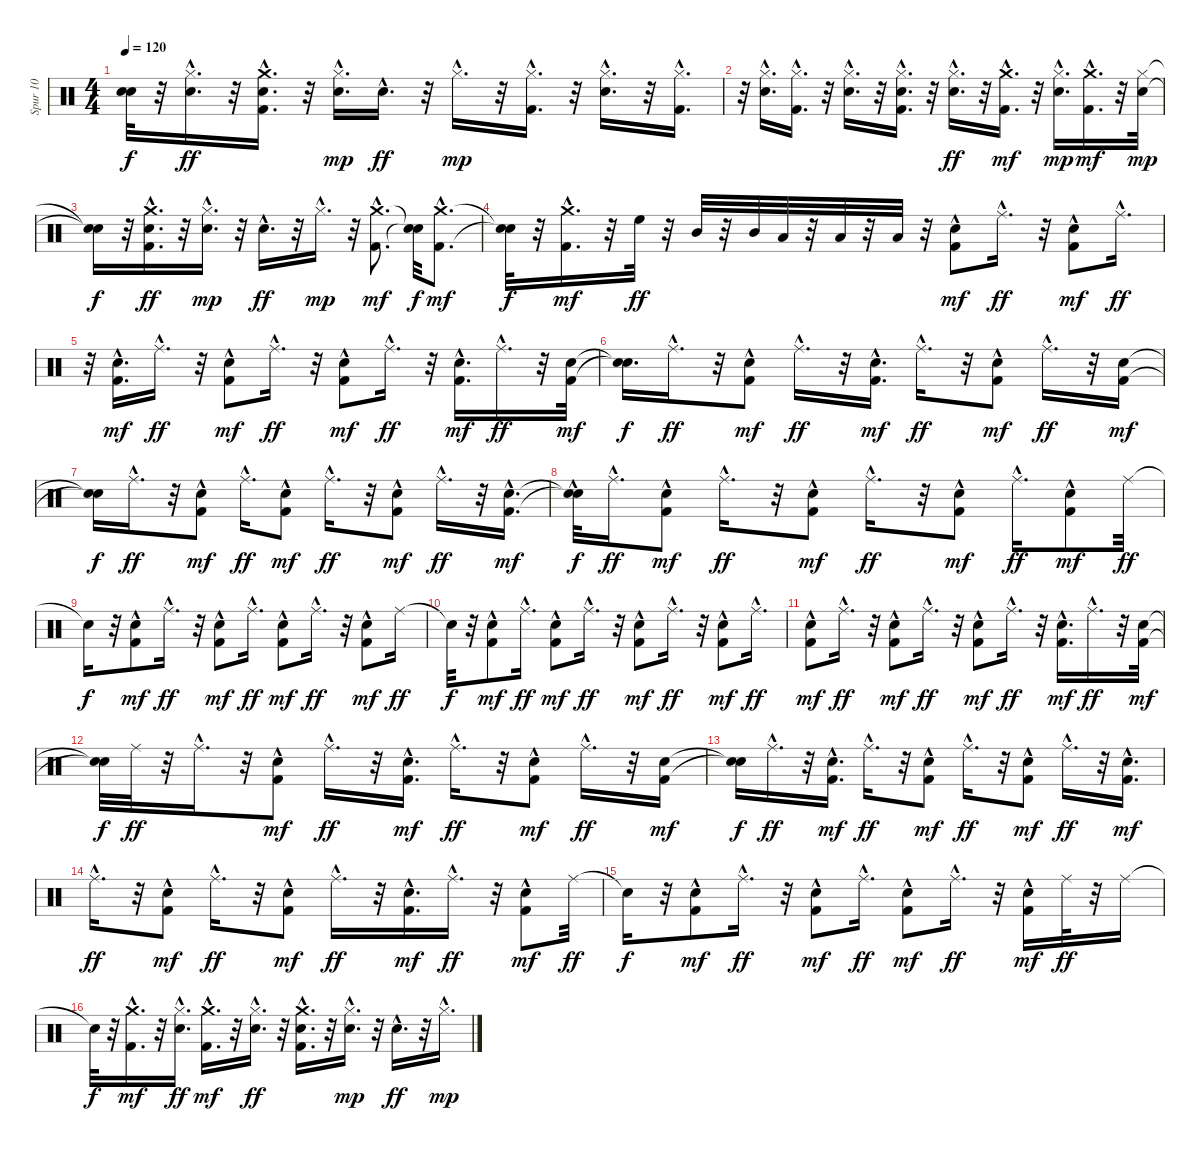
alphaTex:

\track ("Spur 10" "Spur 10") {instrument percussion}
\staff {score}
\articulation defaults
\ts (4 4)
\tempo 120
\clef neutral
\ks c
("Snare (hit)"{t} "Snare (hit)"{t}).32{dy f} r.32 ("Hi-Hat (closed)"{hac} "Snare (hit) 2"{hac}).16{d dy ff} r.32 ("Crash medium (hit)"{hac} "Kick (hit) 2"{hac} "Snare (hit) 2"{hac}).16{d} r.32 ("Snare (hit) 2"{hac} "Hi-Hat (closed)"{hac}).16{d dy mp} "Snare (hit) 2"{hac}.16{d dy ff} r.32 "Hi-Hat (closed)"{hac}.16{d dy mp} r.32 ("Kick (hit) 2"{hac} "Hi-Hat (closed)"{hac}).16{d} r.32 ("Snare (hit) 2"{hac} "Hi-Hat (closed)"{hac}).16{d} r.32 ("Hi-Hat (closed)"{hac} "Kick (hit) 2"{hac}).16{d} |
r.32 ("Snare (hit) 2"{hac} "Hi-Hat (closed)"{hac}).16{d} ("Kick (hit) 2"{hac} "Hi-Hat (closed)"{hac}).16{d} r.32 ("Snare (hit) 2"{hac} "Hi-Hat (closed)"{hac}).16{d} r.32 ("Kick (hit) 2"{hac} "Snare (hit) 2"{hac} "Hi-Hat (closed)"{hac}).16{d} r.32 ("Hi-Hat (closed)"{hac} "Snare (hit) 2"{hac}).16{d dy ff} r.32 ("Kick (hit) 2"{hac} "Crash medium (hit)"{hac}).16{d dy mf} r.32 ("Snare (hit) 2"{hac} "Hi-Hat (closed)"{hac}).16{d dy mp} ("Crash medium (hit)"{hac} "Kick (hit) 2"{hac}).16{d dy mf} r.32 ("Snare (hit) 2" "Hi-Hat (closed)").32{dy mp} |
("Snare (hit)"{t} "Snare (hit)"{t}).16{dy f} r.32 ("Crash medium (hit)"{hac} "Snare (hit) 2"{hac} "Kick (hit) 2"{hac}).16{d dy ff} r.32 ("Snare (hit) 2"{hac} "Hi-Hat (closed)"{hac}).16{d dy mp} r.32 "Snare (hit) 2"{hac}.16{d dy ff} r.32 "Hi-Hat (closed)"{hac}.16{d dy mp} r.32 ("Crash medium (hit)"{hac} "Kick (hit) 2"{hac}).8{d dy mf} ("Snare (hit)"{t} "Snare (hit)"{t}).32{dy f} ("Crash medium (hit)"{hac} "Kick (hit) 2"{hac}).8{d dy mf} |
("Snare (hit)"{t} "Snare (hit)"{t}).32{dy f} r.32 ("Crash medium (hit)"{hac} "Kick (hit) 2"{hac}).16{d dy mf} r.32 "High Floor Tom (hit)".32{dy ff} r.32 "Mid Tom (hit)".32 r.32 "Mid Tom (hit)".32 "Low Tom (hit)".32 r.32 "Low Tom (hit)".32 r.32 "Low Floor Tom (hit)".32 r.32 ("Kick (hit) 2"{hac} "Hand Clap (hit)"{hac}).8{dy mf} "Ride (middle)"{hac}.16{d dy ff} r.32 ("Hand Clap (hit)"{hac} "Kick (hit) 2"{hac}).8{dy mf} "Ride (middle)"{hac}.16{d dy ff} |
r.32 ("Hand Clap (hit)"{hac} "Kick (hit) 2"{hac}).16{d dy mf} "Ride (middle)"{hac}.16{d dy ff} r.32 ("Hand Clap (hit)"{hac} "Kick (hit) 2"{hac}).8{dy mf} "Ride (middle)"{hac}.16{d dy ff} r.32 ("Kick (hit) 2"{hac} "Hand Clap (hit)"{hac}).8{dy mf} "Ride (middle)"{hac}.16{d dy ff} r.32 ("Hand Clap (hit)"{hac} "Kick (hit) 2"{hac}).16{d dy mf} "Ride (middle)"{hac}.16{d dy ff} r.32 ("Hand Clap (hit)" "Kick (hit) 2").32{dy mf} |
("Snare (hit)"{t} "Snare (hit)"{t}).16{d dy f} "Ride (middle)"{hac}.16{d dy ff} r.32 ("Hand Clap (hit)"{hac} "Kick (hit) 2"{hac}).8{dy mf} "Ride (middle)"{hac}.16{d dy ff} r.32 ("Kick (hit) 2"{hac} "Hand Clap (hit)"{hac}).16{d dy mf} "Ride (middle)"{hac}.16{d dy ff} r.32 ("Hand Clap (hit)"{hac} "Kick (hit) 2"{hac}).8{dy mf} "Ride (middle)"{hac}.16{d dy ff} r.32 ("Hand Clap (hit)" "Kick (hit) 2").16{dy mf} |
("Snare (hit)"{t} "Snare (hit)"{t}).16{dy f} "Ride (middle)"{hac}.16{d dy ff} r.32 ("Hand Clap (hit)"{hac} "Kick (hit) 2"{hac}).8{dy mf} "Ride (middle)"{hac}.16{d dy ff} ("Kick (hit) 2"{hac} "Hand Clap (hit)"{hac}).8{dy mf} "Ride (middle)"{hac}.16{d dy ff} r.32 ("Hand Clap (hit)"{hac} "Kick (hit) 2"{hac}).8{dy mf} "Ride (middle)"{hac}.16{d dy ff} r.32 ("Hand Clap (hit)"{hac} "Kick (hit) 2"{hac}).16{d dy mf} |
("Snare (hit)"{hac t} "Snare (hit)"{hac t}).32{dy f} "Ride (middle)"{hac}.16{d dy ff} ("Hand Clap (hit)"{hac} "Kick (hit) 2"{hac}).8{dy mf} "Ride (middle)"{hac}.16{d dy ff} r.32 ("Kick (hit) 2"{hac} "Hand Clap (hit)"{hac}).8{dy mf} "Ride (middle)"{hac}.16{d dy ff} r.32 ("Hand Clap (hit)"{hac} "Kick (hit) 2"{hac}).8{dy mf} "Ride (middle)"{hac}.16{d dy ff} ("Hand Clap (hit)"{hac} "Kick (hit) 2"{hac}).8{dy mf} "Ride (middle)".32{dy ff} |
"Snare (hit)"{t}.16{dy f} r.32 ("Hand Clap (hit)"{hac} "Kick (hit) 2"{hac}).8{dy mf} "Ride (middle)"{hac}.16{d dy ff} r.32 ("Kick (hit) 2"{hac} "Hand Clap (hit)"{hac}).8{dy mf} "Ride (middle)"{hac}.16{d dy ff} ("Hand Clap (hit)"{hac} "Kick (hit) 2"{hac}).8{dy mf} "Ride (middle)"{hac}.16{d dy ff} r.32 ("Hand Clap (hit)"{hac} "Kick (hit) 2"{hac}).8{dy mf} "Ride (middle)".16{dy ff} |
"Snare (hit)"{t}.32{dy f} r.32 ("Hand Clap (hit)"{hac} "Kick (hit) 2"{hac}).8{dy mf} "Ride (middle)"{hac}.16{d dy ff} ("Kick (hit) 2"{hac} "Hand Clap (hit)"{hac}).8{dy mf} "Ride (middle)"{hac}.16{d dy ff} r.32 ("Hand Clap (hit)"{hac} "Kick (hit) 2"{hac}).8{dy mf} "Ride (middle)"{hac}.16{d dy ff} r.32 ("Hand Clap (hit)"{hac} "Kick (hit) 2"{hac}).8{dy mf} "Ride (middle)"{hac}.16{d dy ff} |
("Hand Clap (hit)"{hac} "Kick (hit) 2"{hac}).8{dy mf} "Ride (middle)"{hac}.16{d dy ff} r.32 ("Kick (hit) 2"{hac} "Hand Clap (hit)"{hac}).8{dy mf} "Ride (middle)"{hac}.16{d dy ff} r.32 ("Hand Clap (hit)"{hac} "Kick (hit) 2"{hac}).8{dy mf} "Ride (middle)"{hac}.16{d dy ff} r.32 ("Hand Clap (hit)"{hac} "Kick (hit) 2"{hac}).16{d dy mf} "Ride (middle)"{hac}.16{d dy ff} r.32 ("Hand Clap (hit)" "Kick (hit) 2").32{dy mf} |
("Snare (hit)"{t} "Snare (hit)"{t}).32{dy f} "Ride (middle)".32{dy ff} r.32 "Ride (middle)"{hac}.16{d} r.32 ("Kick (hit) 2"{hac} "Hand Clap (hit)"{hac}).8{dy mf} "Ride (middle)"{hac}.16{d dy ff} r.32 ("Hand Clap (hit)"{hac} "Kick (hit) 2"{hac}).16{d dy mf} "Ride (middle)"{hac}.16{d dy ff} r.32 ("Hand Clap (hit)"{hac} "Kick (hit) 2"{hac}).8{dy mf} "Ride (middle)"{hac}.16{d dy ff} r.32 ("Hand Clap (hit)" "Kick (hit) 2").16{dy mf} |
("Snare (hit)"{t} "Snare (hit)"{t}).16{dy f} "Ride (middle)"{hac}.16{d dy ff} r.32 ("Kick (hit) 2"{hac} "Hand Clap (hit)"{hac}).16{d dy mf} "Ride (middle)"{hac}.16{d dy ff} r.32 ("Hand Clap (hit)"{hac} "Kick (hit) 2"{hac}).8{dy mf} "Ride (middle)"{hac}.16{d dy ff} r.32 ("Hand Clap (hit)"{hac} "Kick (hit) 2"{hac}).8{dy mf} "Ride (middle)"{hac}.16{d dy ff} r.32 ("Hand Clap (hit)"{hac} "Kick (hit) 2"{hac}).16{d dy mf} |
"Ride (middle)"{hac}.16{d dy ff} r.32 ("Kick (hit) 2"{hac} "Hand Clap (hit)"{hac}).8{dy mf} "Ride (middle)"{hac}.16{d dy ff} r.32 ("Hand Clap (hit)"{hac} "Kick (hit) 2"{hac}).8{dy mf} "Ride (middle)"{hac}.16{d dy ff} r.32 ("Hand Clap (hit)"{hac} "Kick (hit) 2"{hac}).16{d dy mf} "Ride (middle)"{hac}.16{d dy ff} r.32 ("Hand Clap (hit)"{hac} "Kick (hit) 2"{hac}).8{dy mf} "Ride (middle)".32{dy ff} |
"Snare (hit)"{t}.16{dy f} r.32 ("Kick (hit) 2"{hac} "Hand Clap (hit)"{hac}).8{dy mf} "Ride (middle)"{hac}.16{d dy ff} r.32 ("Hand Clap (hit)"{hac} "Kick (hit) 2"{hac}).8{dy mf} "Ride (middle)"{hac}.16{d dy ff} ("Hand Clap (hit)"{hac} "Kick (hit) 2"{hac}).8{dy mf} "Ride (middle)"{hac}.16{d dy ff} r.32 ("Hand Clap (hit)"{hac} "Kick (hit) 2"{hac}).16{dy mf} "Ride (middle)".32{dy ff} r.32 "Ride (middle)".16 |
"Snare (hit)"{t}.32{dy f} r.32 ("Crash medium (hit)"{hac} "Kick (hit) 2"{hac}).16{d dy mf} r.32 ("Hi-Hat (closed)"{hac} "Snare (hit) 2"{hac}).16{d dy ff} ("Crash medium (hit)"{hac} "Kick (hit) 2"{hac}).16{d dy mf} r.32 ("Hi-Hat (closed)"{hac} "Snare (hit) 2"{hac}).16{d dy ff} r.32 ("Crash medium (hit)"{hac} "Kick (hit) 2"{hac} "Snare (hit) 2").16{d} r.32 ("Snare (hit) 2"{hac} "Hi-Hat (closed)"{hac}).16{d dy mp} r.32 "Snare (hit) 2"{hac}.16{d dy ff} r.32 "Hi-Hat (closed)"{hac}.16{d dy mp}
